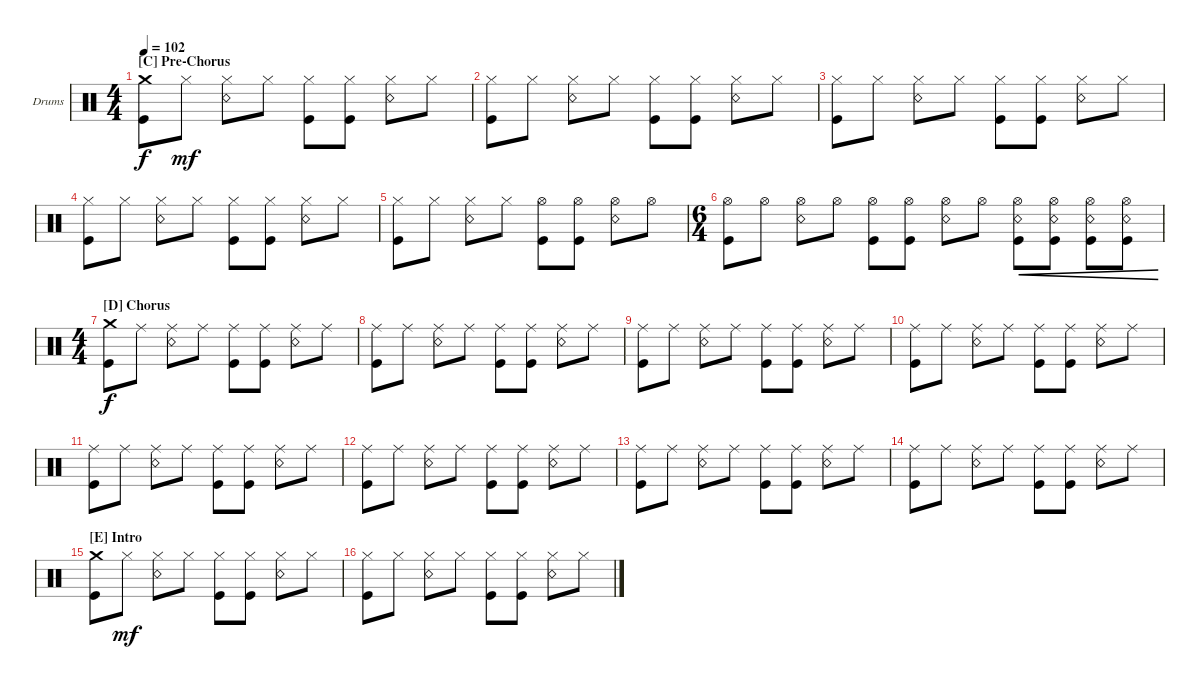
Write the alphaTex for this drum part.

\defaultSystemsLayout 4
\bracketExtendMode groupsimilarinstruments
\firstSystemTrackNameOrientation horizontal
\otherSystemsTrackNameOrientation horizontal
\track ("Drums" "Drums") {instrument percussion}
\staff {score}
\articulation defaults
\ts (4 4)
\section ("C" "Pre-Chorus")
\tempo 102
\clef neutral
\ks c
("Kick (hit)" "Crash medium (hit)").8{dy f} "Hi-Hat (closed)".8{dy mf} ("Hi-Hat (closed)" "Snare (rim shot)").8 "Hi-Hat (closed)".8 ("Hi-Hat (closed)" "Kick (hit)").8 ("Hi-Hat (closed)" "Kick (hit)").8 ("Hi-Hat (closed)" "Snare (rim shot)").8 "Hi-Hat (closed)".8 |
("Kick (hit)" "Hi-Hat (closed)").8 "Hi-Hat (closed)".8 ("Hi-Hat (closed)" "Snare (rim shot)").8 "Hi-Hat (closed)".8 ("Hi-Hat (closed)" "Kick (hit)").8 ("Hi-Hat (closed)" "Kick (hit)").8 ("Hi-Hat (closed)" "Snare (rim shot)").8 "Hi-Hat (closed)".8 |
("Kick (hit)" "Hi-Hat (closed)").8 "Hi-Hat (closed)".8 ("Hi-Hat (closed)" "Snare (rim shot)").8 "Hi-Hat (closed)".8 ("Hi-Hat (closed)" "Kick (hit)").8 ("Hi-Hat (closed)" "Kick (hit)").8 ("Hi-Hat (closed)" "Snare (rim shot)").8 "Hi-Hat (closed)".8 |
("Kick (hit)" "Hi-Hat (closed)").8 "Hi-Hat (closed)".8 ("Hi-Hat (closed)" "Snare (rim shot)").8 "Hi-Hat (closed)".8 ("Hi-Hat (closed)" "Kick (hit)").8 ("Hi-Hat (closed)" "Kick (hit)").8 ("Hi-Hat (closed)" "Snare (rim shot)").8 "Hi-Hat (closed)".8 |
("Kick (hit)" "Hi-Hat (closed)").8 "Hi-Hat (closed)".8 ("Hi-Hat (closed)" "Snare (rim shot)").8 "Hi-Hat (closed)".8 ("Hi-Hat (open)" "Kick (hit)").8 ("Hi-Hat (open)" "Kick (hit)").8 ("Hi-Hat (open)" "Snare (rim shot)").8 "Hi-Hat (open)".8 |
\ts (6 4)
("Kick (hit)" "Hi-Hat (open)").8 "Hi-Hat (open)".8 ("Hi-Hat (open)" "Snare (rim shot)").8 "Hi-Hat (open)".8 ("Hi-Hat (open)" "Kick (hit)").8 ("Hi-Hat (open)" "Kick (hit)").8 ("Hi-Hat (open)" "Snare (rim shot)").8 "Hi-Hat (open)".8 ("Hi-Hat (open)" "Snare (rim shot)" "Kick (hit)").8{cre} ("Hi-Hat (open)" "Snare (rim shot)" "Kick (hit)").8{cre} ("Hi-Hat (open)" "Snare (rim shot)" "Kick (hit)").8{cre} ("Hi-Hat (open)" "Snare (rim shot)" "Kick (hit)").8{cre} |
\ts (4 4)
\section ("D" "Chorus")
("Kick (hit)" "Crash medium (hit)").8{dy f} "Ride (middle)".8 ("Snare (rim shot)" "Ride (middle)").8 "Ride (middle)".8 ("Kick (hit)" "Ride (middle)").8 ("Kick (hit)" "Ride (middle)").8 ("Snare (rim shot)" "Ride (middle)").8 "Ride (middle)".8 |
("Ride (middle)" "Kick (hit)").8 "Ride (middle)".8 ("Ride (middle)" "Snare (rim shot)").8 "Ride (middle)".8 ("Ride (middle)" "Kick (hit)").8 ("Ride (middle)" "Kick (hit)").8 ("Ride (middle)" "Snare (rim shot)").8 "Ride (middle)".8 |
("Ride (middle)" "Kick (hit)").8 "Ride (middle)".8 ("Ride (middle)" "Snare (rim shot)").8 "Ride (middle)".8 ("Ride (middle)" "Kick (hit)").8 ("Ride (middle)" "Kick (hit)").8 ("Ride (middle)" "Snare (rim shot)").8 "Ride (middle)".8 |
("Ride (middle)" "Kick (hit)").8 "Ride (middle)".8 ("Ride (middle)" "Snare (rim shot)").8 "Ride (middle)".8 ("Ride (middle)" "Kick (hit)").8 ("Ride (middle)" "Kick (hit)").8 ("Ride (middle)" "Snare (rim shot)").8 "Ride (middle)".8 |
("Ride (middle)" "Kick (hit)").8 "Ride (middle)".8 ("Ride (middle)" "Snare (rim shot)").8 "Ride (middle)".8 ("Ride (middle)" "Kick (hit)").8 ("Ride (middle)" "Kick (hit)").8 ("Ride (middle)" "Snare (rim shot)").8 "Ride (middle)".8 |
("Ride (middle)" "Kick (hit)").8 "Ride (middle)".8 ("Ride (middle)" "Snare (rim shot)").8 "Ride (middle)".8 ("Ride (middle)" "Kick (hit)").8 ("Ride (middle)" "Kick (hit)").8 ("Ride (middle)" "Snare (rim shot)").8 "Ride (middle)".8 |
("Ride (middle)" "Kick (hit)").8 "Ride (middle)".8 ("Ride (middle)" "Snare (rim shot)").8 "Ride (middle)".8 ("Ride (middle)" "Kick (hit)").8 ("Ride (middle)" "Kick (hit)").8 ("Ride (middle)" "Snare (rim shot)").8 "Ride (middle)".8 |
("Ride (middle)" "Kick (hit)").8 "Ride (middle)".8 ("Ride (middle)" "Snare (rim shot)").8 "Ride (middle)".8 ("Ride (middle)" "Kick (hit)").8 ("Ride (middle)" "Kick (hit)").8 ("Ride (middle)" "Snare (rim shot)").8 "Ride (middle)".8 |
\section ("E" "Intro")
("Kick (hit)" "Crash medium (hit)").8 "Hi-Hat (closed)".8{dy mf} ("Hi-Hat (closed)" "Snare (rim shot)").8 "Hi-Hat (closed)".8 ("Hi-Hat (closed)" "Kick (hit)").8 ("Hi-Hat (closed)" "Kick (hit)").8 ("Hi-Hat (closed)" "Snare (rim shot)").8 "Hi-Hat (closed)".8 |
("Kick (hit)" "Hi-Hat (closed)").8 "Hi-Hat (closed)".8 ("Hi-Hat (closed)" "Snare (rim shot)").8 "Hi-Hat (closed)".8 ("Hi-Hat (closed)" "Kick (hit)").8 ("Hi-Hat (closed)" "Kick (hit)").8 ("Hi-Hat (closed)" "Snare (rim shot)").8 "Hi-Hat (closed)".8
